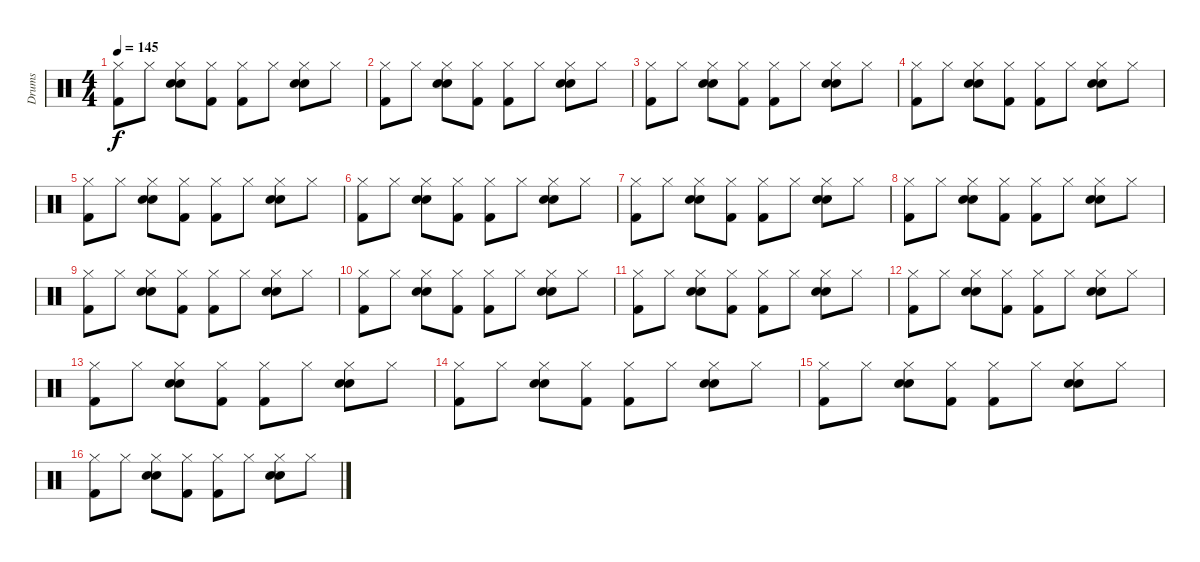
\track ("Drums" "Drums") {instrument percussion}
\staff {score}
\articulation defaults
\ts (4 4)
\tempo 145
\clef neutral
\ks c
("Hi-Hat (closed)" "Kick (hit) 2").8{dy f} "Hi-Hat (closed)".8 ("Hi-Hat (closed)" "Electric Snare (hit)" "Snare (hit) 2").8 ("Hi-Hat (closed)" "Kick (hit) 2").8 ("Hi-Hat (closed)" "Kick (hit) 2").8 "Hi-Hat (closed)".8 ("Hi-Hat (closed)" "Electric Snare (hit)" "Snare (hit) 2").8 "Hi-Hat (closed)".8 |
("Hi-Hat (closed)" "Kick (hit) 2").8 "Hi-Hat (closed)".8 ("Hi-Hat (closed)" "Electric Snare (hit)" "Snare (hit) 2").8 ("Hi-Hat (closed)" "Kick (hit) 2").8 ("Hi-Hat (closed)" "Kick (hit) 2").8 "Hi-Hat (closed)".8 ("Hi-Hat (closed)" "Electric Snare (hit)" "Snare (hit) 2").8 "Hi-Hat (closed)".8 |
("Hi-Hat (closed)" "Kick (hit) 2").8 "Hi-Hat (closed)".8 ("Hi-Hat (closed)" "Electric Snare (hit)" "Snare (hit) 2").8 ("Hi-Hat (closed)" "Kick (hit) 2").8 ("Hi-Hat (closed)" "Kick (hit) 2").8 "Hi-Hat (closed)".8 ("Hi-Hat (closed)" "Electric Snare (hit)" "Snare (hit) 2").8 "Hi-Hat (closed)".8 |
("Hi-Hat (closed)" "Kick (hit) 2").8 "Hi-Hat (closed)".8 ("Hi-Hat (closed)" "Electric Snare (hit)" "Snare (hit) 2").8 ("Hi-Hat (closed)" "Kick (hit) 2").8 ("Hi-Hat (closed)" "Kick (hit) 2").8 "Hi-Hat (closed)".8 ("Hi-Hat (closed)" "Electric Snare (hit)" "Snare (hit) 2").8 "Hi-Hat (closed)".8 |
("Hi-Hat (closed)" "Kick (hit) 2").8 "Hi-Hat (closed)".8 ("Hi-Hat (closed)" "Electric Snare (hit)" "Snare (hit) 2").8 ("Hi-Hat (closed)" "Kick (hit) 2").8 ("Hi-Hat (closed)" "Kick (hit) 2").8 "Hi-Hat (closed)".8 ("Hi-Hat (closed)" "Electric Snare (hit)" "Snare (hit) 2").8 "Hi-Hat (closed)".8 |
("Hi-Hat (closed)" "Kick (hit) 2").8 "Hi-Hat (closed)".8 ("Hi-Hat (closed)" "Electric Snare (hit)" "Snare (hit) 2").8 ("Hi-Hat (closed)" "Kick (hit) 2").8 ("Hi-Hat (closed)" "Kick (hit) 2").8 "Hi-Hat (closed)".8 ("Hi-Hat (closed)" "Electric Snare (hit)" "Snare (hit) 2").8 "Hi-Hat (closed)".8 |
("Hi-Hat (closed)" "Kick (hit) 2").8 "Hi-Hat (closed)".8 ("Hi-Hat (closed)" "Electric Snare (hit)" "Snare (hit) 2").8 ("Hi-Hat (closed)" "Kick (hit) 2").8 ("Hi-Hat (closed)" "Kick (hit) 2").8 "Hi-Hat (closed)".8 ("Hi-Hat (closed)" "Electric Snare (hit)" "Snare (hit) 2").8 "Hi-Hat (closed)".8 |
("Hi-Hat (closed)" "Kick (hit) 2").8 "Hi-Hat (closed)".8 ("Hi-Hat (closed)" "Electric Snare (hit)" "Snare (hit) 2").8 ("Hi-Hat (closed)" "Kick (hit) 2").8 ("Hi-Hat (closed)" "Kick (hit) 2").8 "Hi-Hat (closed)".8 ("Hi-Hat (closed)" "Electric Snare (hit)" "Snare (hit) 2").8 "Hi-Hat (closed)".8 |
("Hi-Hat (closed)" "Kick (hit) 2").8 "Hi-Hat (closed)".8 ("Hi-Hat (closed)" "Electric Snare (hit)" "Snare (hit) 2").8 ("Hi-Hat (closed)" "Kick (hit) 2").8 ("Hi-Hat (closed)" "Kick (hit) 2").8 "Hi-Hat (closed)".8 ("Hi-Hat (closed)" "Electric Snare (hit)" "Snare (hit) 2").8 "Hi-Hat (closed)".8 |
("Hi-Hat (closed)" "Kick (hit) 2").8 "Hi-Hat (closed)".8 ("Hi-Hat (closed)" "Electric Snare (hit)" "Snare (hit) 2").8 ("Hi-Hat (closed)" "Kick (hit) 2").8 ("Hi-Hat (closed)" "Kick (hit) 2").8 "Hi-Hat (closed)".8 ("Hi-Hat (closed)" "Electric Snare (hit)" "Snare (hit) 2").8 "Hi-Hat (closed)".8 |
("Hi-Hat (closed)" "Kick (hit) 2").8 "Hi-Hat (closed)".8 ("Hi-Hat (closed)" "Electric Snare (hit)" "Snare (hit) 2").8 ("Hi-Hat (closed)" "Kick (hit) 2").8 ("Hi-Hat (closed)" "Kick (hit) 2").8 "Hi-Hat (closed)".8 ("Hi-Hat (closed)" "Electric Snare (hit)" "Snare (hit) 2").8 "Hi-Hat (closed)".8 |
("Hi-Hat (closed)" "Kick (hit) 2").8 "Hi-Hat (closed)".8 ("Hi-Hat (closed)" "Electric Snare (hit)" "Snare (hit) 2").8 ("Hi-Hat (closed)" "Kick (hit) 2").8 ("Hi-Hat (closed)" "Kick (hit) 2").8 "Hi-Hat (closed)".8 ("Hi-Hat (closed)" "Electric Snare (hit)" "Snare (hit) 2").8 "Hi-Hat (closed)".8 |
("Hi-Hat (closed)" "Kick (hit) 2").8 "Hi-Hat (closed)".8 ("Hi-Hat (closed)" "Electric Snare (hit)" "Snare (hit) 2").8 ("Hi-Hat (closed)" "Kick (hit) 2").8 ("Hi-Hat (closed)" "Kick (hit) 2").8 "Hi-Hat (closed)".8 ("Hi-Hat (closed)" "Electric Snare (hit)" "Snare (hit) 2").8 "Hi-Hat (closed)".8 |
("Hi-Hat (closed)" "Kick (hit) 2").8 "Hi-Hat (closed)".8 ("Hi-Hat (closed)" "Electric Snare (hit)" "Snare (hit) 2").8 ("Hi-Hat (closed)" "Kick (hit) 2").8 ("Hi-Hat (closed)" "Kick (hit) 2").8 "Hi-Hat (closed)".8 ("Hi-Hat (closed)" "Electric Snare (hit)" "Snare (hit) 2").8 "Hi-Hat (closed)".8 |
("Hi-Hat (closed)" "Kick (hit) 2").8 "Hi-Hat (closed)".8 ("Hi-Hat (closed)" "Electric Snare (hit)" "Snare (hit) 2").8 ("Hi-Hat (closed)" "Kick (hit) 2").8 ("Hi-Hat (closed)" "Kick (hit) 2").8 "Hi-Hat (closed)".8 ("Hi-Hat (closed)" "Electric Snare (hit)" "Snare (hit) 2").8 "Hi-Hat (closed)".8 |
("Hi-Hat (closed)" "Kick (hit) 2").8 "Hi-Hat (closed)".8 ("Hi-Hat (closed)" "Electric Snare (hit)" "Snare (hit) 2").8 ("Hi-Hat (closed)" "Kick (hit) 2").8 ("Hi-Hat (closed)" "Kick (hit) 2").8 "Hi-Hat (closed)".8 ("Hi-Hat (closed)" "Electric Snare (hit)" "Snare (hit) 2").8 "Hi-Hat (closed)".8
